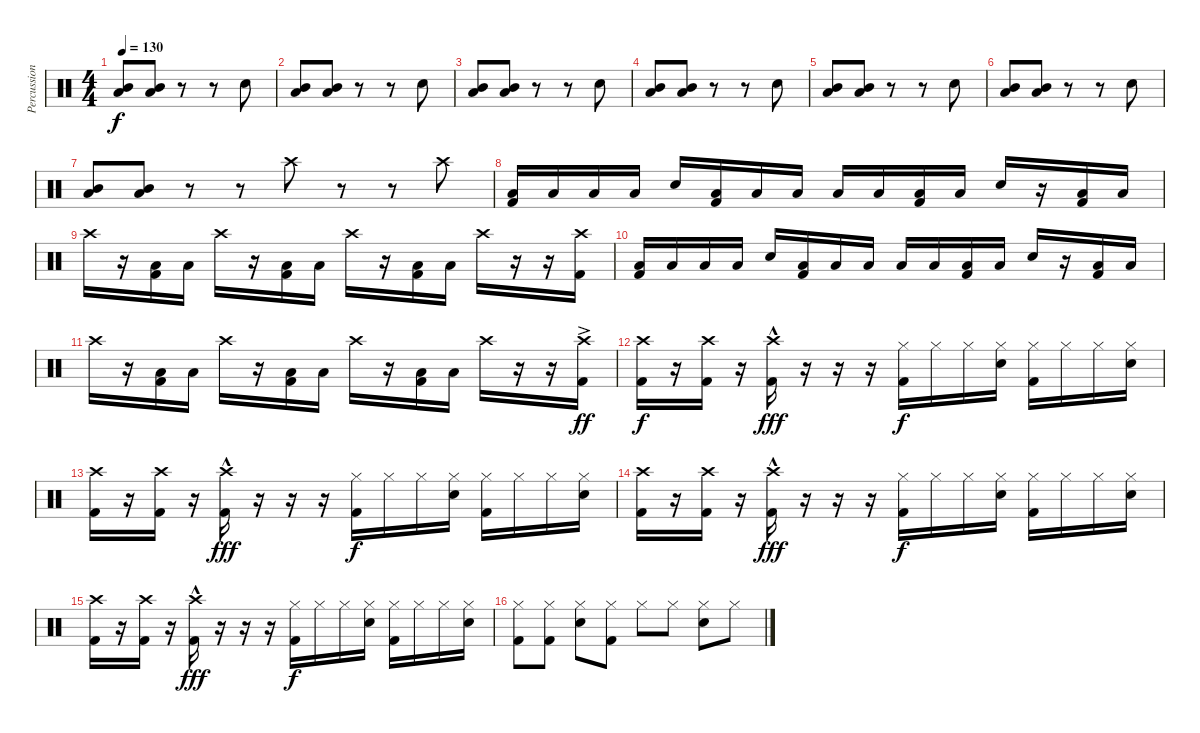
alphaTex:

\track ("Percussion" "Percussion") {instrument percussion}
\staff {score}
\articulation defaults
\ts (4 4)
\tempo 130
\clef neutral
\ks c
("Low Tom (hit)" "Mid Tom (hit)").8{dy f} ("Low Tom (hit)" "Mid Tom (hit)").8 r.8 r.8 "Snare (hit) 2".8 |
("Low Tom (hit)" "Mid Tom (hit)").8 ("Low Tom (hit)" "Mid Tom (hit)").8 r.8 r.8 "Snare (hit) 2".8 |
("Low Tom (hit)" "Mid Tom (hit)").8 ("Low Tom (hit)" "Mid Tom (hit)").8 r.8 r.8 "Snare (hit) 2".8 |
("Low Tom (hit)" "Mid Tom (hit)").8 ("Low Tom (hit)" "Mid Tom (hit)").8 r.8 r.8 "Snare (hit) 2".8 |
("Low Tom (hit)" "Mid Tom (hit)").8 ("Low Tom (hit)" "Mid Tom (hit)").8 r.8 r.8 "Snare (hit) 2".8 |
("Low Tom (hit)" "Mid Tom (hit)").8 ("Low Tom (hit)" "Mid Tom (hit)").8 r.8 r.8 "Snare (hit) 2".8 |
("Low Tom (hit)" "Mid Tom (hit)").8 ("Low Tom (hit)" "Mid Tom (hit)").8 r.8 r.8 "Crash high (hit)".8 r.8 r.8 "Crash high (hit)".8 |
("Low Tom (hit)" "Kick (hit) 2").16 "Low Tom (hit)".16 "Low Tom (hit)".16 "Low Tom (hit)".16 "Snare (hit) 2".16 ("Low Tom (hit)" "Kick (hit) 2").16 "Low Tom (hit)".16 "Low Tom (hit)".16 "Low Tom (hit)".16 "Low Tom (hit)".16 ("Low Tom (hit)" "Kick (hit) 2").16 "Low Tom (hit)".16 "Snare (hit) 2".16 r.16 ("Low Tom (hit)" "Kick (hit) 2").16 "Low Tom (hit)".16 |
"Crash high (hit)".16 r.16 ("Low Tom (hit)" "Kick (hit) 2").16 "Low Tom (hit)".16 "Crash high (hit)".16 r.16 ("Low Tom (hit)" "Kick (hit) 2").16 "Low Tom (hit)".16 "Crash high (hit)".16 r.16 ("Low Tom (hit)" "Kick (hit) 2").16 "Low Tom (hit)".16 "Crash high (hit)".16 r.16 r.16 ("Crash high (hit)" "Kick (hit) 2").16 |
("Low Tom (hit)" "Kick (hit) 2").16 "Low Tom (hit)".16 "Low Tom (hit)".16 "Low Tom (hit)".16 "Snare (hit) 2".16 ("Low Tom (hit)" "Kick (hit) 2").16 "Low Tom (hit)".16 "Low Tom (hit)".16 "Low Tom (hit)".16 "Low Tom (hit)".16 ("Low Tom (hit)" "Kick (hit) 2").16 "Low Tom (hit)".16 "Snare (hit) 2".16 r.16 ("Low Tom (hit)" "Kick (hit) 2").16 "Low Tom (hit)".16 |
"Crash high (hit)".16 r.16 ("Low Tom (hit)" "Kick (hit) 2").16 "Low Tom (hit)".16 "Crash high (hit)".16 r.16 ("Low Tom (hit)" "Kick (hit) 2").16 "Low Tom (hit)".16 "Crash high (hit)".16 r.16 ("Low Tom (hit)" "Kick (hit) 2").16 "Low Tom (hit)".16 "Crash high (hit)".16 r.16 r.16 ("Crash high (hit)"{ac} "Kick (hit) 2"{ac}).16{dy ff} |
("Crash high (hit)" "Kick (hit) 2").16{dy f} r.16 ("Kick (hit) 2" "Crash high (hit)").16 r.16 ("Crash high (hit)"{hac} "Kick (hit) 2"{hac}).16{dy fff} r.16 r.16 r.16 ("Hi-Hat (closed)" "Kick (hit) 2").16{dy f} "Hi-Hat (closed)".16 "Hi-Hat (closed)".16 ("Hi-Hat (closed)" "Snare (hit) 2").16 ("Hi-Hat (closed)" "Kick (hit) 2").16 "Hi-Hat (closed)".16 "Hi-Hat (closed)".16 ("Hi-Hat (closed)" "Snare (hit) 2").16 |
("Crash high (hit)" "Kick (hit) 2").16 r.16 ("Kick (hit) 2" "Crash high (hit)").16 r.16 ("Crash high (hit)"{hac} "Kick (hit) 2"{hac}).16{dy fff} r.16 r.16 r.16 ("Hi-Hat (closed)" "Kick (hit) 2").16{dy f} "Hi-Hat (closed)".16 "Hi-Hat (closed)".16 ("Hi-Hat (closed)" "Snare (hit) 2").16 ("Hi-Hat (closed)" "Kick (hit) 2").16 "Hi-Hat (closed)".16 "Hi-Hat (closed)".16 ("Hi-Hat (closed)" "Snare (hit) 2").16 |
("Crash high (hit)" "Kick (hit) 2").16 r.16 ("Kick (hit) 2" "Crash high (hit)").16 r.16 ("Crash high (hit)"{hac} "Kick (hit) 2"{hac}).16{dy fff} r.16 r.16 r.16 ("Hi-Hat (closed)" "Kick (hit) 2").16{dy f} "Hi-Hat (closed)".16 "Hi-Hat (closed)".16 ("Hi-Hat (closed)" "Snare (hit) 2").16 ("Hi-Hat (closed)" "Kick (hit) 2").16 "Hi-Hat (closed)".16 "Hi-Hat (closed)".16 ("Hi-Hat (closed)" "Snare (hit) 2").16 |
("Crash high (hit)" "Kick (hit) 2").16 r.16 ("Kick (hit) 2" "Crash high (hit)").16 r.16 ("Crash high (hit)"{hac} "Kick (hit) 2"{hac}).16{dy fff} r.16 r.16 r.16 ("Hi-Hat (closed)" "Kick (hit) 2").16{dy f} "Hi-Hat (closed)".16 "Hi-Hat (closed)".16 ("Hi-Hat (closed)" "Snare (hit) 2").16 ("Hi-Hat (closed)" "Kick (hit) 2").16 "Hi-Hat (closed)".16 "Hi-Hat (closed)".16 ("Hi-Hat (closed)" "Snare (hit) 2").16 |
("Hi-Hat (closed)" "Kick (hit) 2").8 ("Hi-Hat (closed)" "Kick (hit) 2").8 ("Hi-Hat (closed)" "Snare (hit) 2").8 ("Hi-Hat (closed)" "Kick (hit) 2").8 "Hi-Hat (closed)".8 "Hi-Hat (closed)".8 ("Hi-Hat (closed)" "Snare (hit) 2").8 "Hi-Hat (closed)".8
